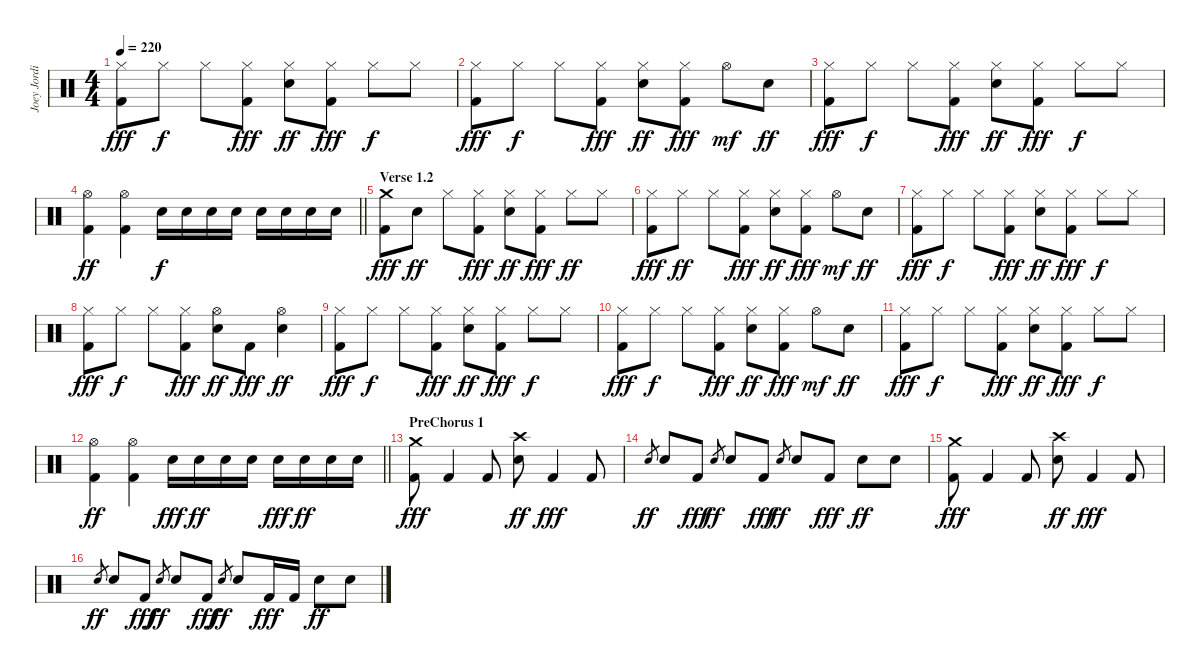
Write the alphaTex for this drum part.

\track ("Joey Jordison" "Joey Jordi") {instrument percussion}
\staff {score}
\articulation defaults
\ts (4 4)
\tempo 220
\clef neutral
\ks c
("Hi-Hat (closed)" "Kick (hit) 2").8{dy fff} "Hi-Hat (closed)".8{dy f} "Hi-Hat (closed)".8 ("Hi-Hat (closed)" "Kick (hit) 2").8{dy fff} ("Hi-Hat (closed)" "Electric Snare (hit)").8{dy ff} ("Hi-Hat (closed)" "Kick (hit) 2").8{dy fff} "Hi-Hat (closed)".8{dy f} "Hi-Hat (closed)".8 |
("Hi-Hat (closed)" "Kick (hit) 2").8{dy fff} "Hi-Hat (closed)".8{dy f} "Hi-Hat (closed)".8 ("Hi-Hat (closed)" "Kick (hit) 2").8{dy fff} ("Hi-Hat (closed)" "Electric Snare (hit)").8{dy ff} ("Hi-Hat (closed)" "Kick (hit) 2").8{dy fff} "Hi-Hat (open)".8{dy mf} "Electric Snare (hit)".8{dy ff} |
("Hi-Hat (closed)" "Kick (hit) 2").8{dy fff} "Hi-Hat (closed)".8{dy f} "Hi-Hat (closed)".8 ("Hi-Hat (closed)" "Kick (hit) 2").8{dy fff} ("Hi-Hat (closed)" "Electric Snare (hit)").8{dy ff} ("Hi-Hat (closed)" "Kick (hit) 2").8{dy fff} "Hi-Hat (closed)".8{dy f} "Hi-Hat (closed)".8 |
\barLineRight lightlight
("Hi-Hat (open)" "Kick (hit) 2").4{dy ff} ("Hi-Hat (open)" "Kick (hit) 2").4 "Electric Snare (hit)".16{dy f} "Electric Snare (hit)".16 "Electric Snare (hit)".16 "Electric Snare (hit)".16 "Electric Snare (hit)".16 "Electric Snare (hit)".16 "Electric Snare (hit)".16 "Electric Snare (hit)".16 |
\section ("" "Verse 1.2")
("Crash medium (hit)" "Kick (hit) 2").8{dy fff} "Electric Snare (hit)".8{dy ff} "Hi-Hat (closed)".8 ("Hi-Hat (closed)" "Kick (hit) 2").8{dy fff} ("Hi-Hat (closed)" "Electric Snare (hit)").8{dy ff} ("Hi-Hat (closed)" "Kick (hit) 2").8{dy fff} "Hi-Hat (closed)".8{dy ff} "Hi-Hat (closed)".8 |
("Hi-Hat (closed)" "Kick (hit) 2").8{dy fff} "Hi-Hat (closed)".8{dy ff} "Hi-Hat (closed)".8 ("Hi-Hat (closed)" "Kick (hit) 2").8{dy fff} ("Hi-Hat (closed)" "Electric Snare (hit)").8{dy ff} ("Hi-Hat (closed)" "Kick (hit) 2").8{dy fff} "Hi-Hat (open)".8{dy mf} "Electric Snare (hit)".8{dy ff} |
("Hi-Hat (closed)" "Kick (hit) 2").8{dy fff} "Hi-Hat (closed)".8{dy f} "Hi-Hat (closed)".8 ("Hi-Hat (closed)" "Kick (hit) 2").8{dy fff} ("Hi-Hat (closed)" "Electric Snare (hit)").8{dy ff} ("Hi-Hat (closed)" "Kick (hit) 2").8{dy fff} "Hi-Hat (closed)".8{dy f} "Hi-Hat (closed)".8 |
("Hi-Hat (closed)" "Kick (hit) 2").8{dy fff} "Hi-Hat (closed)".8{dy f} "Hi-Hat (closed)".8 ("Hi-Hat (closed)" "Kick (hit) 2").8{dy fff} ("Hi-Hat (open)" "Electric Snare (hit)").8{dy ff} "Kick (hit) 2".8{dy fff} ("Hi-Hat (open)" "Electric Snare (hit)").4{dy ff} |
("Hi-Hat (closed)" "Kick (hit) 2").8{dy fff} "Hi-Hat (closed)".8{dy f} "Hi-Hat (closed)".8 ("Hi-Hat (closed)" "Kick (hit) 2").8{dy fff} ("Hi-Hat (closed)" "Electric Snare (hit)").8{dy ff} ("Hi-Hat (closed)" "Kick (hit) 2").8{dy fff} "Hi-Hat (closed)".8{dy f} "Hi-Hat (closed)".8 |
("Hi-Hat (closed)" "Kick (hit) 2").8{dy fff} "Hi-Hat (closed)".8{dy f} "Hi-Hat (closed)".8 ("Hi-Hat (closed)" "Kick (hit) 2").8{dy fff} ("Hi-Hat (closed)" "Electric Snare (hit)").8{dy ff} ("Hi-Hat (closed)" "Kick (hit) 2").8{dy fff} "Hi-Hat (open)".8{dy mf} "Electric Snare (hit)".8{dy ff} |
("Hi-Hat (closed)" "Kick (hit) 2").8{dy fff} "Hi-Hat (closed)".8{dy f} "Hi-Hat (closed)".8 ("Hi-Hat (closed)" "Kick (hit) 2").8{dy fff} ("Hi-Hat (closed)" "Electric Snare (hit)").8{dy ff} ("Hi-Hat (closed)" "Kick (hit) 2").8{dy fff} "Hi-Hat (closed)".8{dy f} "Hi-Hat (closed)".8 |
\barLineRight lightlight
("Hi-Hat (open)" "Kick (hit) 2").4{dy ff} ("Hi-Hat (open)" "Kick (hit) 2").4 "Electric Snare (hit)".16{dy fff} "Electric Snare (hit)".16{dy ff} "Electric Snare (hit)".16 "Electric Snare (hit)".16 "Electric Snare (hit)".16{dy fff} "Electric Snare (hit)".16{dy ff} "Electric Snare (hit)".16 "Electric Snare (hit)".16 |
\section ("" "PreChorus 1")
("Crash medium (hit)" "Kick (hit) 2").8{dy fff} "Kick (hit) 2".4 "Kick (hit) 2".8 ("Crash high (hit)" "Electric Snare (hit)").8{dy ff} "Kick (hit) 2".4{dy fff} "Kick (hit) 2".8 |
"Electric Snare (hit)".8{gr dy ff} "Electric Snare (hit)".8 "Kick (hit) 2".8{dy fff} "Electric Snare (hit)".8{gr dy ff} "Electric Snare (hit)".8 "Kick (hit) 2".8{dy fff} "Electric Snare (hit)".8{gr dy ff} "Electric Snare (hit)".8 "Kick (hit) 2".8{dy fff} "Electric Snare (hit)".8{dy ff} "Electric Snare (hit)".8 |
("Crash medium (hit)" "Kick (hit) 2").8{dy fff} "Kick (hit) 2".4 "Kick (hit) 2".8 ("Crash high (hit)" "Electric Snare (hit)").8{dy ff} "Kick (hit) 2".4{dy fff} "Kick (hit) 2".8 |
"Electric Snare (hit)".8{gr dy ff} "Electric Snare (hit)".8 "Kick (hit) 2".8{dy fff} "Electric Snare (hit)".8{gr dy ff} "Electric Snare (hit)".8 "Kick (hit) 2".8{dy fff} "Electric Snare (hit)".8{gr dy ff} "Electric Snare (hit)".8 "Kick (hit) 2".16{dy fff} "Kick (hit) 2".16 "Electric Snare (hit)".8{dy ff} "Electric Snare (hit)".8
